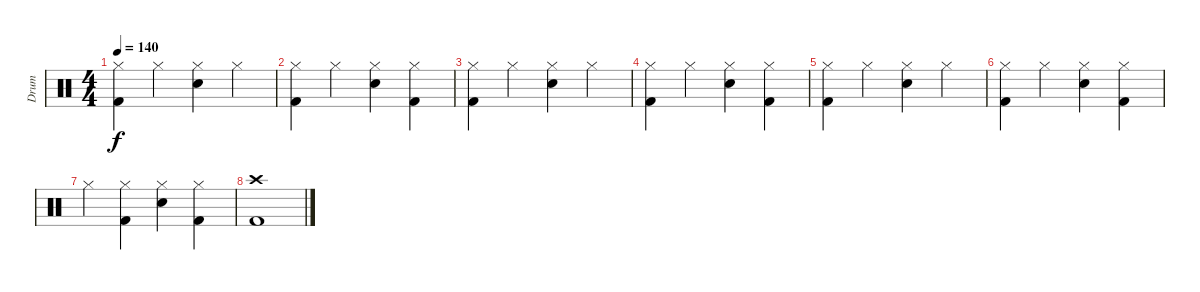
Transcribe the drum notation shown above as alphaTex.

\track ("Drum" "Drum") {instrument percussion}
\staff {score}
\articulation defaults
\ts (4 4)
\tempo 140
\clef neutral
\ks c
("Hi-Hat (closed)" "Kick (hit) 2").4{dy f} "Hi-Hat (closed)".4 ("Hi-Hat (closed)" "Electric Snare (hit)").4 "Hi-Hat (closed)".4 |
("Hi-Hat (closed)" "Kick (hit) 2").4 "Hi-Hat (closed)".4 ("Hi-Hat (closed)" "Electric Snare (hit)").4 ("Hi-Hat (closed)" "Kick (hit) 2").4 |
("Hi-Hat (closed)" "Kick (hit) 2").4 "Hi-Hat (closed)".4 ("Hi-Hat (closed)" "Electric Snare (hit)").4 "Hi-Hat (closed)".4 |
("Hi-Hat (closed)" "Kick (hit) 2").4 "Hi-Hat (closed)".4 ("Hi-Hat (closed)" "Electric Snare (hit)").4 ("Hi-Hat (closed)" "Kick (hit) 2").4 |
("Hi-Hat (closed)" "Kick (hit) 2").4 "Hi-Hat (closed)".4 ("Hi-Hat (closed)" "Electric Snare (hit)").4 "Hi-Hat (closed)".4 |
("Hi-Hat (closed)" "Kick (hit) 2").4 "Hi-Hat (closed)".4 ("Hi-Hat (closed)" "Electric Snare (hit)").4 ("Hi-Hat (closed)" "Kick (hit) 2").4 |
"Hi-Hat (closed)".4 ("Hi-Hat (closed)" "Kick (hit) 2").4 ("Hi-Hat (closed)" "Electric Snare (hit)").4 ("Hi-Hat (closed)" "Kick (hit) 2").4 |
("Crash high (hit)" "Kick (hit) 2").1
